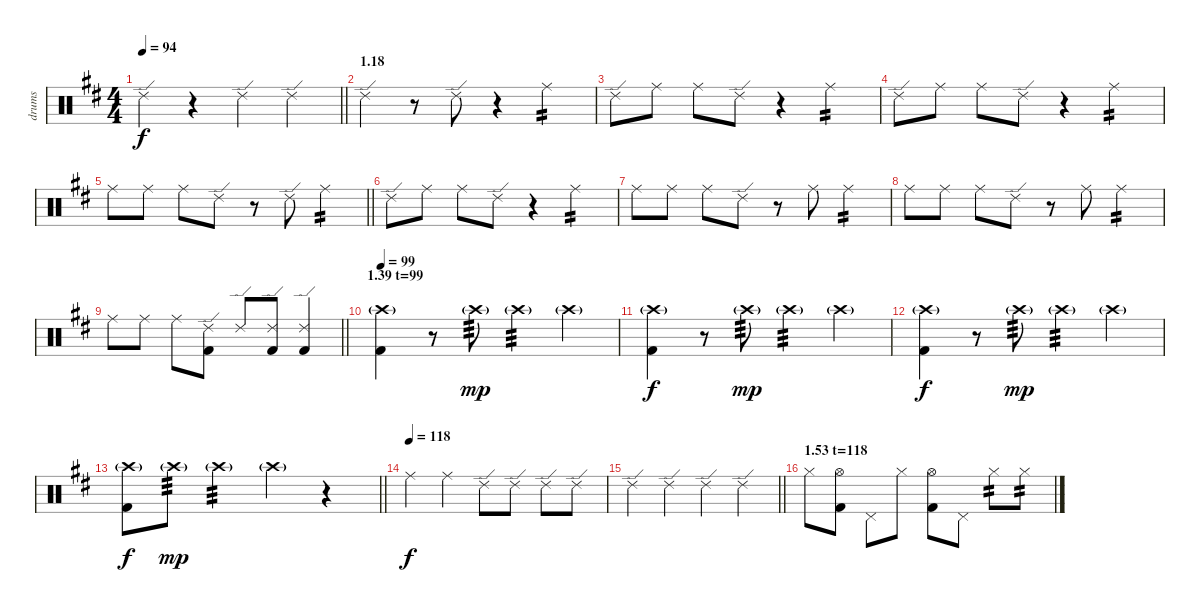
\track ("drums" "drums") {instrument percussion}
\staff {score}
\articulation defaults
\ts (4 4)
\tempo 94
\clef neutral
\barLineRight lightlight
\ks d "Ride (edge) 2".4{dy f}
r.4 "Ride (edge) 2".4 "Ride (edge) 2".4 |
\section ("" "1.18")
"Ride (edge) 2".4 r.8 "Ride (edge) 2".8 r.4 "Ride (middle)".4{tp 2} |
"Ride (edge) 2".8 "Ride (middle)".8 "Ride (middle)".8 "Ride (edge) 2".8 r.4 "Ride (middle)".4{tp 2} |
"Ride (edge) 2".8 "Ride (middle)".8 "Ride (middle)".8 "Ride (edge) 2".8 r.4 "Ride (middle)".4{tp 2} |
\barLineRight lightlight "Ride (middle)".8 "Ride (middle)".8 "Ride (middle)".8 "Ride (edge) 2".8
r.8 "Ride (edge) 2".8 "Ride (middle)".4{tp 2} |
"Ride (edge) 2".8 "Ride (middle)".8 "Ride (middle)".8 "Ride (edge) 2".8 r.4 "Ride (middle)".4{tp 2} |
"Ride (middle)".8 "Ride (middle)".8 "Ride (middle)".8 "Ride (edge) 2".8 r.8 "Ride (middle)".8 "Ride (middle)".4{tp 2} |
"Ride (middle)".8 "Ride (middle)".8 "Ride (middle)".8 "Ride (edge) 2".8 r.8 "Ride (middle)".8 "Ride (middle)".4{tp 2} |
\barLineRight lightlight "Ride (middle)".8 "Ride (middle)".8 "Ride (middle)".8
("Ride (edge) 2" "Kick (hit) 2").8 "Ride (edge) 2".8 ("Ride (edge) 2" "Kick (hit) 2").8 ("Ride (edge) 2" "Kick (hit) 2").4 |
\section ("" "1.39 t=99")
\tempo 99
("Crash high (hit)"{g} "Kick (hit) 2").4 r.8 "Crash high (hit)"{g}.8{tp 3 dy mp} "Crash high (hit)"{g}.4{tp 3} "Crash high (hit)"{g}.4 |
("Crash high (hit)"{g} "Kick (hit) 2").4{dy f} r.8 "Crash high (hit)"{g}.8{tp 3 dy mp} "Crash high (hit)"{g}.4{tp 3} "Crash high (hit)"{g}.4 |
("Crash high (hit)"{g} "Kick (hit) 2").4{dy f} r.8 "Crash high (hit)"{g}.8{tp 3 dy mp} "Crash high (hit)"{g}.4{tp 3} "Crash high (hit)"{g}.4 |
\barLineRight lightlight
("Crash high (hit)"{g} "Kick (hit) 2").8{dy f} "Crash high (hit)"{g}.8{tp 3 dy mp} "Crash high (hit)"{g}.4{tp 3} "Crash high (hit)"{g}.4 r.4 |
\tempo (118)
"Ride (middle)".4{dy f} "Ride (middle)".4 "Ride (edge) 2".8 "Ride (edge) 2".8 "Ride (edge) 2".8 "Ride (edge) 2".8 |
\barLineRight lightlight "Ride (edge) 2".4 "Ride (edge) 2".4 "Ride (edge) 2".4 "Ride (edge) 2".4
|
\section ("" "1.53 t=118")
"Hi-Hat (closed)".8 ("Hi-Hat (open)" "Kick (hit) 2").8 "Pedal Hi-Hat (hit)".8 "Hi-Hat (closed)".8 ("Hi-Hat (open)" "Kick (hit) 2").8 "Pedal Hi-Hat (hit)".8 "Hi-Hat (closed)".8{tp 2} "Hi-Hat (closed)".8{tp 2}
